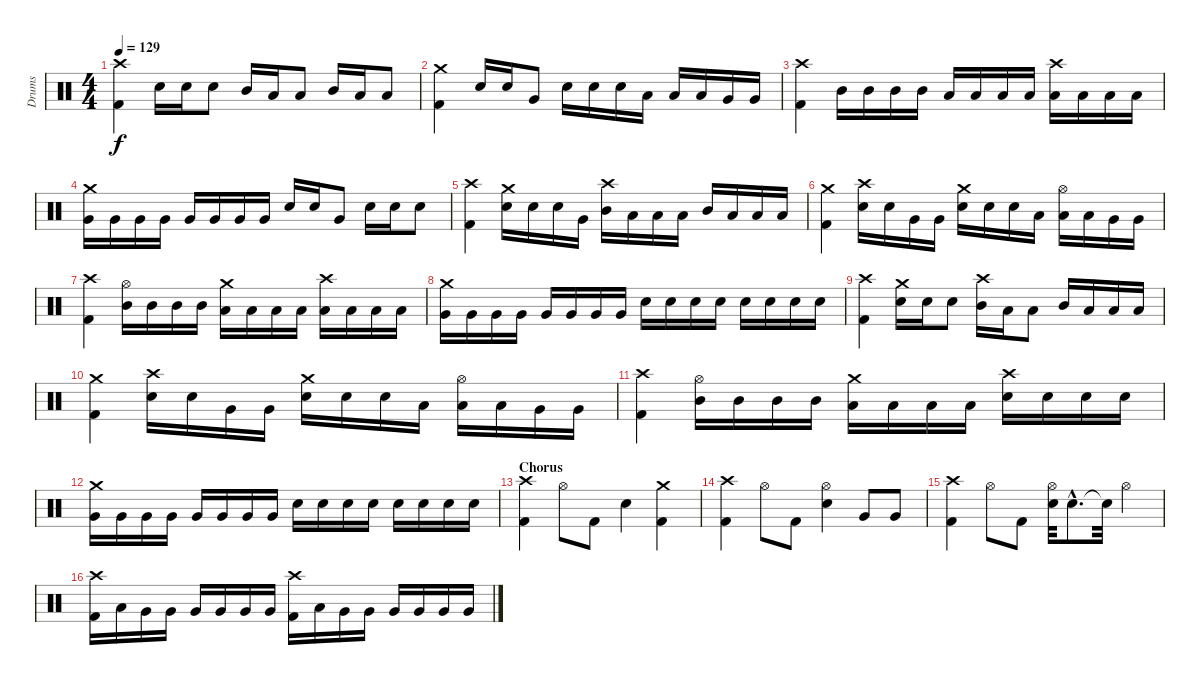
\track ("Drums" "Drums") {instrument percussion}
\staff {score}
\articulation defaults
\ts (4 4)
\tempo 129
\clef neutral
\ks c
("Crash high (hit)" "Kick (hit) 2").4{dy f} "Snare (hit) 2".16 "Snare (hit) 2".16 "Snare (hit) 2".8 "Mid Tom (hit)".16 "Low Tom (hit)".16 "Low Tom (hit)".8 "Mid Tom (hit)".16 "Low Tom (hit)".16 "Low Tom (hit)".8 |
("Crash medium (hit)" "Kick (hit) 2").4 "Snare (hit) 2".16 "Snare (hit) 2".16 "Very Low Tom (hit)".8 "Snare (hit) 2".16 "Snare (hit) 2".16 "Snare (hit) 2".16 "Low Tom (hit)".16 "Low Tom (hit)".16 "Low Tom (hit)".16 "Very Low Tom (hit)".16 "Very Low Tom (hit)".16 |
("Crash high (hit)" "Kick (hit) 2").4 "Mid Tom (hit)".16 "Mid Tom (hit)".16 "Mid Tom (hit)".16 "Mid Tom (hit)".16 "Low Tom (hit)".16 "Low Tom (hit)".16 "Low Tom (hit)".16 "Low Tom (hit)".16 ("Crash high (hit)" "Low Tom (hit)").16 "Low Tom (hit)".16 "Low Tom (hit)".16 "Low Tom (hit)".16 |
("Crash medium (hit)" "Very Low Tom (hit)").16 "Very Low Tom (hit)".16 "Very Low Tom (hit)".16 "Very Low Tom (hit)".16 "Very Low Tom (hit)".16 "Very Low Tom (hit)".16 "Very Low Tom (hit)".16 "Very Low Tom (hit)".16 "Snare (hit) 2".16 "Snare (hit) 2".16 "Very Low Tom (hit)".8 "Snare (hit) 2".16 "Snare (hit) 2".16 "Snare (hit) 2".8 |
("Crash high (hit)" "Kick (hit) 2").4 ("Crash medium (hit)" "Snare (hit) 2").16 "Snare (hit) 2".16 "Snare (hit) 2".16 "Very Low Tom (hit)".16 ("Crash high (hit)" "Mid Tom (hit)").16 "Low Tom (hit)".16 "Low Tom (hit)".16 "Low Tom (hit)".16 "Mid Tom (hit)".16 "Low Tom (hit)".16 "Low Tom (hit)".16 "Low Tom (hit)".16 |
("Crash medium (hit)" "Kick (hit) 2").4 ("Crash high (hit)" "Snare (hit) 2").16 "Snare (hit) 2".16 "Very Low Tom (hit)".16 "Very Low Tom (hit)".16 ("Crash medium (hit)" "Snare (hit) 2").16 "Snare (hit) 2".16 "Snare (hit) 2".16 "Low Tom (hit)".16 ("Hi-Hat (open)" "Low Tom (hit)").16 "Low Tom (hit)".16 "Very Low Tom (hit)".16 "Very Low Tom (hit)".16 |
("Crash high (hit)" "Kick (hit) 2").4 ("Hi-Hat (open)" "Mid Tom (hit)").16 "Mid Tom (hit)".16 "Mid Tom (hit)".16 "Mid Tom (hit)".16 ("Crash medium (hit)" "Low Tom (hit)").16 "Low Tom (hit)".16 "Low Tom (hit)".16 "Low Tom (hit)".16 ("Crash high (hit)" "Low Tom (hit)").16 "Low Tom (hit)".16 "Low Tom (hit)".16 "Low Tom (hit)".16 |
("Crash medium (hit)" "Very Low Tom (hit)").16 "Very Low Tom (hit)".16 "Very Low Tom (hit)".16 "Very Low Tom (hit)".16 "Very Low Tom (hit)".16 "Very Low Tom (hit)".16 "Very Low Tom (hit)".16 "Very Low Tom (hit)".16 "Snare (hit) 2".16 "Snare (hit) 2".16 "Snare (hit) 2".16 "Snare (hit) 2".16 "Snare (hit) 2".16 "Snare (hit) 2".16 "Snare (hit) 2".16 "Snare (hit) 2".16 |
("Crash high (hit)" "Kick (hit) 2").4 ("Crash medium (hit)" "Snare (hit) 2").16 "Snare (hit) 2".16 "Snare (hit) 2".8 ("Crash high (hit)" "Mid Tom (hit)").16 "Low Tom (hit)".16 "Low Tom (hit)".8 "Mid Tom (hit)".16 "Low Tom (hit)".16 "Low Tom (hit)".16 "Low Tom (hit)".16 |
("Crash medium (hit)" "Kick (hit) 2").4 ("Crash high (hit)" "Snare (hit) 2").16 "Snare (hit) 2".16 "Very Low Tom (hit)".16 "Very Low Tom (hit)".16 ("Crash medium (hit)" "Snare (hit) 2").16 "Snare (hit) 2".16 "Snare (hit) 2".16 "Low Tom (hit)".16 ("Hi-Hat (open)" "Low Tom (hit)").16 "Low Tom (hit)".16 "Very Low Tom (hit)".16 "Very Low Tom (hit)".16 |
("Crash high (hit)" "Kick (hit) 2").4 ("Hi-Hat (open)" "Mid Tom (hit)").16 "Mid Tom (hit)".16 "Mid Tom (hit)".16 "Mid Tom (hit)".16 ("Crash medium (hit)" "Low Tom (hit)").16 "Low Tom (hit)".16 "Low Tom (hit)".16 "Low Tom (hit)".16 ("Crash high (hit)" "Snare (hit) 2").16 "Snare (hit) 2".16 "Snare (hit) 2".16 "Snare (hit) 2".16 |
("Crash medium (hit)" "Very Low Tom (hit)").16 "Very Low Tom (hit)".16 "Very Low Tom (hit)".16 "Very Low Tom (hit)".16 "Very Low Tom (hit)".16 "Very Low Tom (hit)".16 "Very Low Tom (hit)".16 "Very Low Tom (hit)".16 "Snare (hit) 2".16 "Snare (hit) 2".16 "Snare (hit) 2".16 "Snare (hit) 2".16 "Snare (hit) 2".16 "Snare (hit) 2".16 "Snare (hit) 2".16 "Snare (hit) 2".16 |
\section ("" "Chorus")
("Crash high (hit)" "Kick (hit) 2").4 "Hi-Hat (open)".8 "Kick (hit) 2".8 "Snare (hit) 2".4 ("Crash medium (hit)" "Kick (hit) 2").4 |
("Crash high (hit)" "Kick (hit) 2").4 "Hi-Hat (open)".8 "Kick (hit) 2".8 ("Hi-Hat (open)" "Snare (hit) 2").4 "Very Low Tom (hit)".8 "Very Low Tom (hit)".8 |
("Crash high (hit)" "Kick (hit) 2").4 "Hi-Hat (open)".8 "Kick (hit) 2".8 ("Hi-Hat (open)" "Snare (hit) 2").32 "Snare (hit) 2"{hac}.8{d} "Snare (hit)"{t}.32 "Hi-Hat (open)".4 |
("Crash high (hit)" "Kick (hit) 2").16 "Low Tom (hit)".16 "Very Low Tom (hit)".16 "Very Low Tom (hit)".16 "Very Low Tom (hit)".16 "Very Low Tom (hit)".16 "Very Low Tom (hit)".16 "Very Low Tom (hit)".16 ("Crash high (hit)" "Kick (hit) 2").16 "Low Tom (hit)".16 "Very Low Tom (hit)".16 "Very Low Tom (hit)".16 "Very Low Tom (hit)".16 "Very Low Tom (hit)".16 "Very Low Tom (hit)".16 "Very Low Tom (hit)".16
